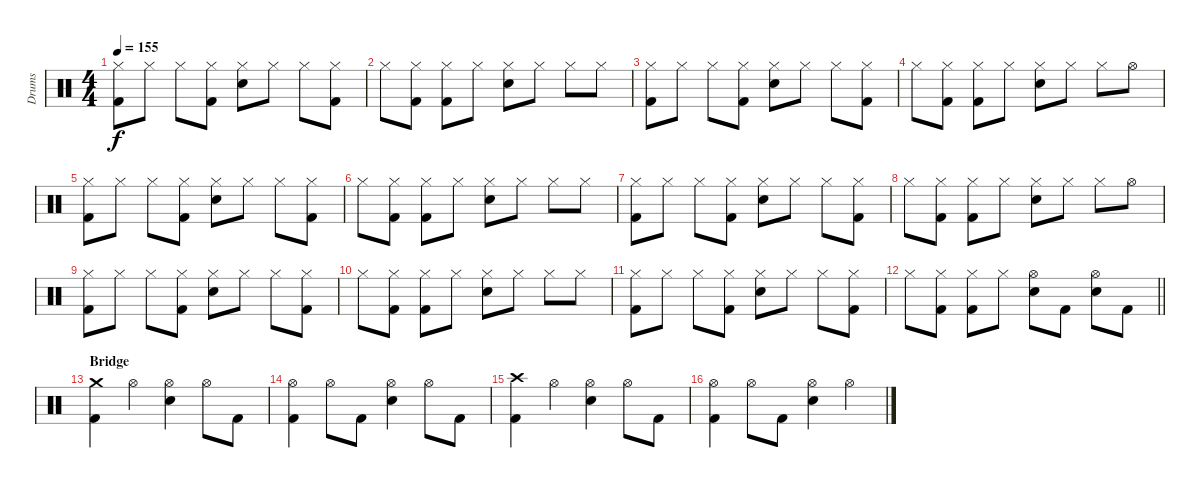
\track ("Drums" "Drums") {instrument percussion}
\staff {score}
\articulation defaults
\ts (4 4)
\tempo 155
\clef neutral
\ks c
("Hi-Hat (closed)" "Kick (hit) 2").8{dy f} "Hi-Hat (closed)".8 "Hi-Hat (closed)".8 ("Hi-Hat (closed)" "Kick (hit) 2").8 ("Hi-Hat (closed)" "Electric Snare (hit)").8 "Hi-Hat (closed)".8 "Hi-Hat (closed)".8 ("Hi-Hat (closed)" "Kick (hit) 2").8 |
"Hi-Hat (closed)".8 ("Hi-Hat (closed)" "Kick (hit) 2").8 ("Hi-Hat (closed)" "Kick (hit) 2").8 "Hi-Hat (closed)".8 ("Hi-Hat (closed)" "Electric Snare (hit)").8 "Hi-Hat (closed)".8 "Hi-Hat (closed)".8 "Hi-Hat (closed)".8 |
("Hi-Hat (closed)" "Kick (hit) 2").8 "Hi-Hat (closed)".8 "Hi-Hat (closed)".8 ("Hi-Hat (closed)" "Kick (hit) 2").8 ("Hi-Hat (closed)" "Electric Snare (hit)").8 "Hi-Hat (closed)".8 "Hi-Hat (closed)".8 ("Hi-Hat (closed)" "Kick (hit) 2").8 |
"Hi-Hat (closed)".8 ("Hi-Hat (closed)" "Kick (hit) 2").8 ("Hi-Hat (closed)" "Kick (hit) 2").8 "Hi-Hat (closed)".8 ("Hi-Hat (closed)" "Electric Snare (hit)").8 "Hi-Hat (closed)".8 "Hi-Hat (closed)".8 "Hi-Hat (open)".8 |
("Hi-Hat (closed)" "Kick (hit) 2").8 "Hi-Hat (closed)".8 "Hi-Hat (closed)".8 ("Hi-Hat (closed)" "Kick (hit) 2").8 ("Hi-Hat (closed)" "Electric Snare (hit)").8 "Hi-Hat (closed)".8 "Hi-Hat (closed)".8 ("Hi-Hat (closed)" "Kick (hit) 2").8 |
"Hi-Hat (closed)".8 ("Hi-Hat (closed)" "Kick (hit) 2").8 ("Hi-Hat (closed)" "Kick (hit) 2").8 "Hi-Hat (closed)".8 ("Hi-Hat (closed)" "Electric Snare (hit)").8 "Hi-Hat (closed)".8 "Hi-Hat (closed)".8 "Hi-Hat (closed)".8 |
("Hi-Hat (closed)" "Kick (hit) 2").8 "Hi-Hat (closed)".8 "Hi-Hat (closed)".8 ("Hi-Hat (closed)" "Kick (hit) 2").8 ("Hi-Hat (closed)" "Electric Snare (hit)").8 "Hi-Hat (closed)".8 "Hi-Hat (closed)".8 ("Hi-Hat (closed)" "Kick (hit) 2").8 |
"Hi-Hat (closed)".8 ("Hi-Hat (closed)" "Kick (hit) 2").8 ("Hi-Hat (closed)" "Kick (hit) 2").8 "Hi-Hat (closed)".8 ("Hi-Hat (closed)" "Electric Snare (hit)").8 "Hi-Hat (closed)".8 "Hi-Hat (closed)".8 "Hi-Hat (open)".8 |
("Hi-Hat (closed)" "Kick (hit) 2").8 "Hi-Hat (closed)".8 "Hi-Hat (closed)".8 ("Hi-Hat (closed)" "Kick (hit) 2").8 ("Hi-Hat (closed)" "Electric Snare (hit)").8 "Hi-Hat (closed)".8 "Hi-Hat (closed)".8 ("Hi-Hat (closed)" "Kick (hit) 2").8 |
"Hi-Hat (closed)".8 ("Hi-Hat (closed)" "Kick (hit) 2").8 ("Hi-Hat (closed)" "Kick (hit) 2").8 "Hi-Hat (closed)".8 ("Hi-Hat (closed)" "Electric Snare (hit)").8 "Hi-Hat (closed)".8 "Hi-Hat (closed)".8 "Hi-Hat (closed)".8 |
("Hi-Hat (closed)" "Kick (hit) 2").8 "Hi-Hat (closed)".8 "Hi-Hat (closed)".8 ("Hi-Hat (closed)" "Kick (hit) 2").8 ("Hi-Hat (closed)" "Electric Snare (hit)").8 "Hi-Hat (closed)".8 "Hi-Hat (closed)".8 ("Hi-Hat (closed)" "Kick (hit) 2").8 |
\barLineRight lightlight "Hi-Hat (closed)".8
("Hi-Hat (closed)" "Kick (hit) 2").8 ("Hi-Hat (closed)" "Kick (hit) 2").8 "Hi-Hat (closed)".8 ("Hi-Hat (open)" "Electric Snare (hit)").8 "Kick (hit) 2".8 ("Hi-Hat (open)" "Electric Snare (hit)").8 "Kick (hit) 2".8 |
\section ("" "Bridge")
("Crash medium (hit)" "Kick (hit) 2").4 "Hi-Hat (open)".4 ("Hi-Hat (open)" "Electric Snare (hit)").4 "Hi-Hat (open)".8 "Kick (hit) 2".8 |
("Hi-Hat (open)" "Kick (hit) 2").4 "Hi-Hat (open)".8 "Kick (hit) 2".8 ("Hi-Hat (open)" "Electric Snare (hit)").4 "Hi-Hat (open)".8 "Kick (hit) 2".8 |
("Crash high (hit)" "Kick (hit) 2").4 "Hi-Hat (open)".4 ("Hi-Hat (open)" "Electric Snare (hit)").4 "Hi-Hat (open)".8 "Kick (hit) 2".8 |
("Hi-Hat (open)" "Kick (hit) 2").4 "Hi-Hat (open)".8 "Kick (hit) 2".8 ("Hi-Hat (open)" "Electric Snare (hit)").4 "Hi-Hat (open)".4
